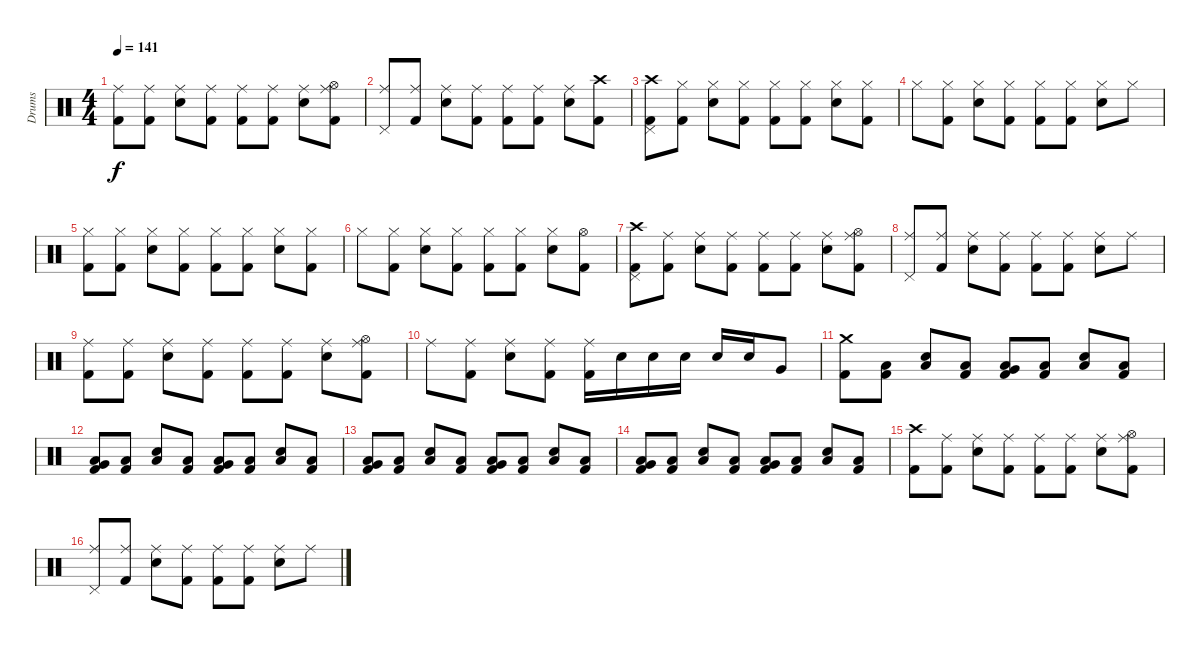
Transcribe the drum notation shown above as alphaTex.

\track ("Drums" "Drums") {instrument percussion}
\staff {score}
\articulation defaults
\ts (4 4)
\tempo 141
\clef neutral
\ks c
("Ride (middle)" "Kick (hit) 2").8{dy f} ("Ride (middle)" "Kick (hit) 2").8 ("Ride (middle)" "Electric Snare (hit)").8 ("Ride (middle)" "Kick (hit) 2").8 ("Ride (middle)" "Kick (hit) 2").8 ("Ride (middle)" "Kick (hit) 2").8 ("Ride (middle)" "Electric Snare (hit)").8 ("Ride (middle)" "Hi-Hat (open)" "Kick (hit) 2").8 |
("Ride (middle)" "Pedal Hi-Hat (hit)").8 ("Ride (middle)" "Kick (hit) 2").8 ("Ride (middle)" "Electric Snare (hit)").8 ("Ride (middle)" "Kick (hit) 2").8 ("Ride (middle)" "Kick (hit) 2").8 ("Ride (middle)" "Kick (hit) 2").8 ("Ride (middle)" "Electric Snare (hit)").8 ("Crash high (hit)" "Kick (hit) 2").8 |
("Crash high (hit)" "Pedal Hi-Hat (hit)" "Kick (hit) 2").8 ("Hi-Hat (closed)" "Kick (hit) 2").8 ("Hi-Hat (closed)" "Electric Snare (hit)").8 ("Hi-Hat (closed)" "Kick (hit) 2").8 ("Hi-Hat (closed)" "Kick (hit) 2").8 ("Hi-Hat (closed)" "Kick (hit) 2").8 ("Hi-Hat (closed)" "Electric Snare (hit)").8 ("Hi-Hat (closed)" "Kick (hit) 2").8 |
"Hi-Hat (closed)".8 ("Hi-Hat (closed)" "Kick (hit) 2").8 ("Hi-Hat (closed)" "Electric Snare (hit)").8 ("Hi-Hat (closed)" "Kick (hit) 2").8 ("Hi-Hat (closed)" "Kick (hit) 2").8 ("Hi-Hat (closed)" "Kick (hit) 2").8 ("Hi-Hat (closed)" "Electric Snare (hit)").8 "Hi-Hat (closed)".8 |
("Hi-Hat (closed)" "Kick (hit) 2").8 ("Hi-Hat (closed)" "Kick (hit) 2").8 ("Hi-Hat (closed)" "Electric Snare (hit)").8 ("Hi-Hat (closed)" "Kick (hit) 2").8 ("Hi-Hat (closed)" "Kick (hit) 2").8 ("Hi-Hat (closed)" "Kick (hit) 2").8 ("Hi-Hat (closed)" "Electric Snare (hit)").8 ("Hi-Hat (closed)" "Kick (hit) 2").8 |
"Hi-Hat (closed)".8 ("Hi-Hat (closed)" "Kick (hit) 2").8 ("Hi-Hat (closed)" "Electric Snare (hit)").8 ("Hi-Hat (closed)" "Kick (hit) 2").8 ("Hi-Hat (closed)" "Kick (hit) 2").8 ("Hi-Hat (closed)" "Kick (hit) 2").8 ("Hi-Hat (closed)" "Electric Snare (hit)").8 ("Hi-Hat (open)" "Kick (hit) 2").8 |
("Crash high (hit)" "Pedal Hi-Hat (hit)" "Kick (hit) 2").8 ("Ride (middle)" "Kick (hit) 2").8 ("Ride (middle)" "Electric Snare (hit)").8 ("Ride (middle)" "Kick (hit) 2").8 ("Ride (middle)" "Kick (hit) 2").8 ("Ride (middle)" "Kick (hit) 2").8 ("Ride (middle)" "Electric Snare (hit)").8 ("Ride (middle)" "Hi-Hat (open)" "Kick (hit) 2").8 |
("Ride (middle)" "Pedal Hi-Hat (hit)").8 ("Ride (middle)" "Kick (hit) 2").8 ("Ride (middle)" "Electric Snare (hit)").8 ("Ride (middle)" "Kick (hit) 2").8 ("Ride (middle)" "Kick (hit) 2").8 ("Ride (middle)" "Kick (hit) 2").8 ("Ride (middle)" "Electric Snare (hit)").8 "Ride (middle)".8 |
("Ride (middle)" "Kick (hit) 2").8 ("Ride (middle)" "Kick (hit) 2").8 ("Ride (middle)" "Electric Snare (hit)").8 ("Ride (middle)" "Kick (hit) 2").8 ("Ride (middle)" "Kick (hit) 2").8 ("Ride (middle)" "Kick (hit) 2").8 ("Ride (middle)" "Electric Snare (hit)").8 ("Ride (middle)" "Hi-Hat (open)" "Kick (hit) 2").8 |
"Ride (middle)".8 ("Ride (middle)" "Kick (hit) 2").8 ("Ride (middle)" "Electric Snare (hit)").8 ("Ride (middle)" "Kick (hit) 2").8 ("Ride (middle)" "Kick (hit) 2").16 "Electric Snare (hit)".16 "Electric Snare (hit)".16 "Electric Snare (hit)".16 "Electric Snare (hit)".16 "Electric Snare (hit)".16 "Very Low Tom (hit)".8 |
("Crash medium (hit)" "Kick (hit) 2").8 ("Low Floor Tom (hit)" "Kick (hit) 2").8 ("Low Floor Tom (hit)" "Electric Snare (hit)").8 ("Low Floor Tom (hit)" "Kick (hit) 2").8 ("Low Floor Tom (hit)" "Very Low Tom (hit)" "Kick (hit) 2").8 ("Low Floor Tom (hit)" "Kick (hit) 2").8 ("Low Floor Tom (hit)" "Electric Snare (hit)").8 ("Low Floor Tom (hit)" "Kick (hit) 2").8 |
("Low Floor Tom (hit)" "Very Low Tom (hit)" "Kick (hit) 2").8 ("Low Floor Tom (hit)" "Kick (hit) 2").8 ("Low Floor Tom (hit)" "Electric Snare (hit)").8 ("Low Floor Tom (hit)" "Kick (hit) 2").8 ("Low Floor Tom (hit)" "Very Low Tom (hit)" "Kick (hit) 2").8 ("Low Floor Tom (hit)" "Kick (hit) 2").8 ("Low Floor Tom (hit)" "Electric Snare (hit)").8 ("Low Floor Tom (hit)" "Kick (hit) 2").8 |
("Low Floor Tom (hit)" "Very Low Tom (hit)" "Kick (hit) 2").8 ("Low Floor Tom (hit)" "Kick (hit) 2").8 ("Low Floor Tom (hit)" "Electric Snare (hit)").8 ("Low Floor Tom (hit)" "Kick (hit) 2").8 ("Low Floor Tom (hit)" "Very Low Tom (hit)" "Kick (hit) 2").8 ("Low Floor Tom (hit)" "Kick (hit) 2").8 ("Low Floor Tom (hit)" "Electric Snare (hit)").8 ("Low Floor Tom (hit)" "Kick (hit) 2").8 |
("Low Floor Tom (hit)" "Very Low Tom (hit)" "Kick (hit) 2").8 ("Low Floor Tom (hit)" "Kick (hit) 2").8 ("Low Floor Tom (hit)" "Electric Snare (hit)").8 ("Low Floor Tom (hit)" "Kick (hit) 2").8 ("Low Floor Tom (hit)" "Very Low Tom (hit)" "Kick (hit) 2").8 ("Low Floor Tom (hit)" "Kick (hit) 2").8 ("Low Floor Tom (hit)" "Electric Snare (hit)").8 ("Low Floor Tom (hit)" "Kick (hit) 2").8 |
("Crash high (hit)" "Kick (hit) 2").8 ("Ride (middle)" "Kick (hit) 2").8 ("Ride (middle)" "Electric Snare (hit)").8 ("Ride (middle)" "Kick (hit) 2").8 ("Ride (middle)" "Kick (hit) 2").8 ("Ride (middle)" "Kick (hit) 2").8 ("Ride (middle)" "Electric Snare (hit)").8 ("Ride (middle)" "Hi-Hat (open)" "Kick (hit) 2").8 |
("Ride (middle)" "Pedal Hi-Hat (hit)").8 ("Ride (middle)" "Kick (hit) 2").8 ("Ride (middle)" "Electric Snare (hit)").8 ("Ride (middle)" "Kick (hit) 2").8 ("Ride (middle)" "Kick (hit) 2").8 ("Ride (middle)" "Kick (hit) 2").8 ("Ride (middle)" "Electric Snare (hit)").8 "Ride (middle)".8
